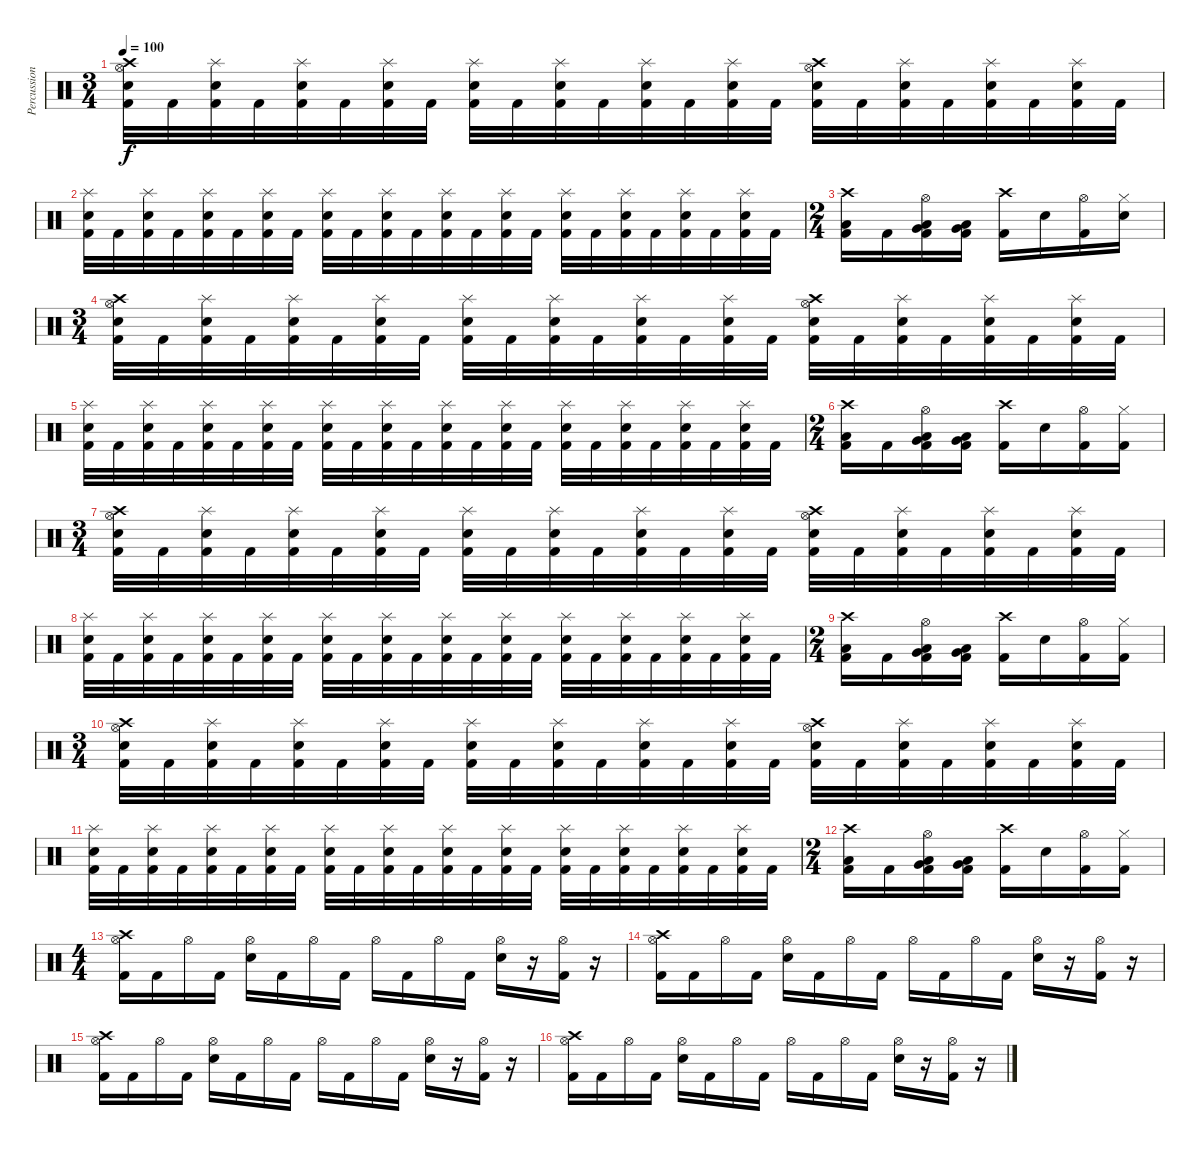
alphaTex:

\track ("Percussion" "Percussion") {instrument percussion}
\staff {score}
\articulation defaults
\ts (3 4)
\tempo 100
\clef neutral
\ks c
("Hi-Hat (open)" "Crash high (hit)" "Electric Snare (hit)" "Kick (hit) 2").32{dy f} "Kick (hit) 2".32 ("Splash (hit)" "Electric Snare (hit)" "Kick (hit) 2").32 "Kick (hit) 2".32 ("Splash (hit)" "Electric Snare (hit)" "Kick (hit) 2").32 "Kick (hit) 2".32 ("Splash (hit)" "Electric Snare (hit)" "Kick (hit) 2").32 "Kick (hit) 2".32 ("Splash (hit)" "Electric Snare (hit)" "Kick (hit) 2").32 "Kick (hit) 2".32 ("Splash (hit)" "Electric Snare (hit)" "Kick (hit) 2").32 "Kick (hit) 2".32 ("Splash (hit)" "Electric Snare (hit)" "Kick (hit) 2").32 "Kick (hit) 2".32 ("Splash (hit)" "Electric Snare (hit)" "Kick (hit) 2").32 "Kick (hit) 2".32 ("Hi-Hat (open)" "Crash high (hit)" "Electric Snare (hit)" "Kick (hit) 2").32 "Kick (hit) 2".32 ("Splash (hit)" "Electric Snare (hit)" "Kick (hit) 2").32 "Kick (hit) 2".32 ("Splash (hit)" "Electric Snare (hit)" "Kick (hit) 2").32 "Kick (hit) 2".32 ("Splash (hit)" "Electric Snare (hit)" "Kick (hit) 2").32 "Kick (hit) 2".32 |
("Splash (hit)" "Electric Snare (hit)" "Kick (hit) 2").32 "Kick (hit) 2".32 ("Splash (hit)" "Electric Snare (hit)" "Kick (hit) 2").32 "Kick (hit) 2".32 ("Splash (hit)" "Electric Snare (hit)" "Kick (hit) 2").32 "Kick (hit) 2".32 ("Splash (hit)" "Electric Snare (hit)" "Kick (hit) 2").32 "Kick (hit) 2".32 ("Splash (hit)" "Electric Snare (hit)" "Kick (hit) 2").32 "Kick (hit) 2".32 ("Splash (hit)" "Electric Snare (hit)" "Kick (hit) 2").32 "Kick (hit) 2".32 ("Splash (hit)" "Electric Snare (hit)" "Kick (hit) 2").32 "Kick (hit) 2".32 ("Splash (hit)" "Electric Snare (hit)" "Kick (hit) 2").32 "Kick (hit) 2".32 ("Splash (hit)" "Electric Snare (hit)" "Kick (hit) 2").32 "Kick (hit) 2".32 ("Splash (hit)" "Electric Snare (hit)" "Kick (hit) 2").32 "Kick (hit) 2".32 ("Splash (hit)" "Electric Snare (hit)" "Kick (hit) 2").32 "Kick (hit) 2".32 ("Splash (hit)" "Electric Snare (hit)" "Kick (hit) 2").32 "Kick (hit) 2".32 |
\ts (2 4)
("Crash high (hit)" "Low Floor Tom (hit)" "Kick (hit) 2").16 "Kick (hit) 2".16 ("Hi-Hat (open)" "Very Low Tom (hit)" "Low Floor Tom (hit)" "Kick (hit) 2").16 ("Very Low Tom (hit)" "Low Floor Tom (hit)" "Kick (hit) 2").16 ("Crash high (hit)" "Kick (hit) 2").16 "Electric Snare (hit)".16 ("Hi-Hat (open)" "Kick (hit) 2").16 ("Hi-Hat (closed)" "Electric Snare (hit)").16 |
\ts (3 4)
("Hi-Hat (open)" "Crash high (hit)" "Electric Snare (hit)" "Kick (hit) 2").32 "Kick (hit) 2".32 ("Splash (hit)" "Electric Snare (hit)" "Kick (hit) 2").32 "Kick (hit) 2".32 ("Splash (hit)" "Electric Snare (hit)" "Kick (hit) 2").32 "Kick (hit) 2".32 ("Splash (hit)" "Electric Snare (hit)" "Kick (hit) 2").32 "Kick (hit) 2".32 ("Splash (hit)" "Electric Snare (hit)" "Kick (hit) 2").32 "Kick (hit) 2".32 ("Splash (hit)" "Electric Snare (hit)" "Kick (hit) 2").32 "Kick (hit) 2".32 ("Splash (hit)" "Electric Snare (hit)" "Kick (hit) 2").32 "Kick (hit) 2".32 ("Splash (hit)" "Electric Snare (hit)" "Kick (hit) 2").32 "Kick (hit) 2".32 ("Hi-Hat (open)" "Crash high (hit)" "Electric Snare (hit)" "Kick (hit) 2").32 "Kick (hit) 2".32 ("Splash (hit)" "Electric Snare (hit)" "Kick (hit) 2").32 "Kick (hit) 2".32 ("Splash (hit)" "Electric Snare (hit)" "Kick (hit) 2").32 "Kick (hit) 2".32 ("Splash (hit)" "Electric Snare (hit)" "Kick (hit) 2").32 "Kick (hit) 2".32 |
("Splash (hit)" "Electric Snare (hit)" "Kick (hit) 2").32 "Kick (hit) 2".32 ("Splash (hit)" "Electric Snare (hit)" "Kick (hit) 2").32 "Kick (hit) 2".32 ("Splash (hit)" "Electric Snare (hit)" "Kick (hit) 2").32 "Kick (hit) 2".32 ("Splash (hit)" "Electric Snare (hit)" "Kick (hit) 2").32 "Kick (hit) 2".32 ("Splash (hit)" "Electric Snare (hit)" "Kick (hit) 2").32 "Kick (hit) 2".32 ("Splash (hit)" "Electric Snare (hit)" "Kick (hit) 2").32 "Kick (hit) 2".32 ("Splash (hit)" "Electric Snare (hit)" "Kick (hit) 2").32 "Kick (hit) 2".32 ("Splash (hit)" "Electric Snare (hit)" "Kick (hit) 2").32 "Kick (hit) 2".32 ("Splash (hit)" "Electric Snare (hit)" "Kick (hit) 2").32 "Kick (hit) 2".32 ("Splash (hit)" "Electric Snare (hit)" "Kick (hit) 2").32 "Kick (hit) 2".32 ("Splash (hit)" "Electric Snare (hit)" "Kick (hit) 2").32 "Kick (hit) 2".32 ("Splash (hit)" "Electric Snare (hit)" "Kick (hit) 2").32 "Kick (hit) 2".32 |
\ts (2 4)
("Crash high (hit)" "Low Floor Tom (hit)" "Kick (hit) 2").16 "Kick (hit) 2".16 ("Hi-Hat (open)" "Very Low Tom (hit)" "Low Floor Tom (hit)" "Kick (hit) 2").16 ("Very Low Tom (hit)" "Low Floor Tom (hit)" "Kick (hit) 2").16 ("Crash high (hit)" "Kick (hit) 2").16 "Electric Snare (hit)".16 ("Hi-Hat (open)" "Kick (hit) 2").16 ("Hi-Hat (closed)" "Kick (hit) 2").16 |
\ts (3 4)
("Hi-Hat (open)" "Crash high (hit)" "Electric Snare (hit)" "Kick (hit) 2").32 "Kick (hit) 2".32 ("Splash (hit)" "Electric Snare (hit)" "Kick (hit) 2").32 "Kick (hit) 2".32 ("Splash (hit)" "Electric Snare (hit)" "Kick (hit) 2").32 "Kick (hit) 2".32 ("Splash (hit)" "Electric Snare (hit)" "Kick (hit) 2").32 "Kick (hit) 2".32 ("Splash (hit)" "Electric Snare (hit)" "Kick (hit) 2").32 "Kick (hit) 2".32 ("Splash (hit)" "Electric Snare (hit)" "Kick (hit) 2").32 "Kick (hit) 2".32 ("Splash (hit)" "Electric Snare (hit)" "Kick (hit) 2").32 "Kick (hit) 2".32 ("Splash (hit)" "Electric Snare (hit)" "Kick (hit) 2").32 "Kick (hit) 2".32 ("Hi-Hat (open)" "Crash high (hit)" "Electric Snare (hit)" "Kick (hit) 2").32 "Kick (hit) 2".32 ("Splash (hit)" "Electric Snare (hit)" "Kick (hit) 2").32 "Kick (hit) 2".32 ("Splash (hit)" "Electric Snare (hit)" "Kick (hit) 2").32 "Kick (hit) 2".32 ("Splash (hit)" "Electric Snare (hit)" "Kick (hit) 2").32 "Kick (hit) 2".32 |
("Splash (hit)" "Electric Snare (hit)" "Kick (hit) 2").32 "Kick (hit) 2".32 ("Splash (hit)" "Electric Snare (hit)" "Kick (hit) 2").32 "Kick (hit) 2".32 ("Splash (hit)" "Electric Snare (hit)" "Kick (hit) 2").32 "Kick (hit) 2".32 ("Splash (hit)" "Electric Snare (hit)" "Kick (hit) 2").32 "Kick (hit) 2".32 ("Splash (hit)" "Electric Snare (hit)" "Kick (hit) 2").32 "Kick (hit) 2".32 ("Splash (hit)" "Electric Snare (hit)" "Kick (hit) 2").32 "Kick (hit) 2".32 ("Splash (hit)" "Electric Snare (hit)" "Kick (hit) 2").32 "Kick (hit) 2".32 ("Splash (hit)" "Electric Snare (hit)" "Kick (hit) 2").32 "Kick (hit) 2".32 ("Splash (hit)" "Electric Snare (hit)" "Kick (hit) 2").32 "Kick (hit) 2".32 ("Splash (hit)" "Electric Snare (hit)" "Kick (hit) 2").32 "Kick (hit) 2".32 ("Splash (hit)" "Electric Snare (hit)" "Kick (hit) 2").32 "Kick (hit) 2".32 ("Splash (hit)" "Electric Snare (hit)" "Kick (hit) 2").32 "Kick (hit) 2".32 |
\ts (2 4)
("Crash high (hit)" "Low Floor Tom (hit)" "Kick (hit) 2").16 "Kick (hit) 2".16 ("Hi-Hat (open)" "Very Low Tom (hit)" "Low Floor Tom (hit)" "Kick (hit) 2").16 ("Very Low Tom (hit)" "Low Floor Tom (hit)" "Kick (hit) 2").16 ("Crash high (hit)" "Kick (hit) 2").16 "Electric Snare (hit)".16 ("Hi-Hat (open)" "Kick (hit) 2").16 ("Hi-Hat (closed)" "Kick (hit) 2").16 |
\ts (3 4)
("Hi-Hat (open)" "Crash high (hit)" "Electric Snare (hit)" "Kick (hit) 2").32 "Kick (hit) 2".32 ("Splash (hit)" "Electric Snare (hit)" "Kick (hit) 2").32 "Kick (hit) 2".32 ("Splash (hit)" "Electric Snare (hit)" "Kick (hit) 2").32 "Kick (hit) 2".32 ("Splash (hit)" "Electric Snare (hit)" "Kick (hit) 2").32 "Kick (hit) 2".32 ("Splash (hit)" "Electric Snare (hit)" "Kick (hit) 2").32 "Kick (hit) 2".32 ("Splash (hit)" "Electric Snare (hit)" "Kick (hit) 2").32 "Kick (hit) 2".32 ("Splash (hit)" "Electric Snare (hit)" "Kick (hit) 2").32 "Kick (hit) 2".32 ("Splash (hit)" "Electric Snare (hit)" "Kick (hit) 2").32 "Kick (hit) 2".32 ("Hi-Hat (open)" "Crash high (hit)" "Electric Snare (hit)" "Kick (hit) 2").32 "Kick (hit) 2".32 ("Splash (hit)" "Electric Snare (hit)" "Kick (hit) 2").32 "Kick (hit) 2".32 ("Splash (hit)" "Electric Snare (hit)" "Kick (hit) 2").32 "Kick (hit) 2".32 ("Splash (hit)" "Electric Snare (hit)" "Kick (hit) 2").32 "Kick (hit) 2".32 |
("Splash (hit)" "Electric Snare (hit)" "Kick (hit) 2").32 "Kick (hit) 2".32 ("Splash (hit)" "Electric Snare (hit)" "Kick (hit) 2").32 "Kick (hit) 2".32 ("Splash (hit)" "Electric Snare (hit)" "Kick (hit) 2").32 "Kick (hit) 2".32 ("Splash (hit)" "Electric Snare (hit)" "Kick (hit) 2").32 "Kick (hit) 2".32 ("Splash (hit)" "Electric Snare (hit)" "Kick (hit) 2").32 "Kick (hit) 2".32 ("Splash (hit)" "Electric Snare (hit)" "Kick (hit) 2").32 "Kick (hit) 2".32 ("Splash (hit)" "Electric Snare (hit)" "Kick (hit) 2").32 "Kick (hit) 2".32 ("Splash (hit)" "Electric Snare (hit)" "Kick (hit) 2").32 "Kick (hit) 2".32 ("Splash (hit)" "Electric Snare (hit)" "Kick (hit) 2").32 "Kick (hit) 2".32 ("Splash (hit)" "Electric Snare (hit)" "Kick (hit) 2").32 "Kick (hit) 2".32 ("Splash (hit)" "Electric Snare (hit)" "Kick (hit) 2").32 "Kick (hit) 2".32 ("Splash (hit)" "Electric Snare (hit)" "Kick (hit) 2").32 "Kick (hit) 2".32 |
\ts (2 4)
("Crash high (hit)" "Low Floor Tom (hit)" "Kick (hit) 2").16 "Kick (hit) 2".16 ("Hi-Hat (open)" "Very Low Tom (hit)" "Low Floor Tom (hit)" "Kick (hit) 2").16 ("Very Low Tom (hit)" "Low Floor Tom (hit)" "Kick (hit) 2").16 ("Crash high (hit)" "Kick (hit) 2").16 "Electric Snare (hit)".16 ("Hi-Hat (open)" "Kick (hit) 2").16 ("Hi-Hat (closed)" "Kick (hit) 2").16 |
\ts (4 4)
("Hi-Hat (open)" "Crash high (hit)" "Kick (hit) 2").16 "Kick (hit) 2".16 "Hi-Hat (open)".16 "Kick (hit) 2".16 ("Hi-Hat (open)" "Electric Snare (hit)").16 "Kick (hit) 2".16 "Hi-Hat (open)".16 "Kick (hit) 2".16 "Hi-Hat (open)".16 "Kick (hit) 2".16 "Hi-Hat (open)".16 "Kick (hit) 2".16 ("Hi-Hat (open)" "Electric Snare (hit)").16 r.16 ("Hi-Hat (open)" "Kick (hit) 2").16 r.16 |
("Hi-Hat (open)" "Crash high (hit)" "Kick (hit) 2").16 "Kick (hit) 2".16 "Hi-Hat (open)".16 "Kick (hit) 2".16 ("Hi-Hat (open)" "Electric Snare (hit)").16 "Kick (hit) 2".16 "Hi-Hat (open)".16 "Kick (hit) 2".16 "Hi-Hat (open)".16 "Kick (hit) 2".16 "Hi-Hat (open)".16 "Kick (hit) 2".16 ("Hi-Hat (open)" "Electric Snare (hit)").16 r.16 ("Hi-Hat (open)" "Kick (hit) 2").16 r.16 |
("Hi-Hat (open)" "Crash high (hit)" "Kick (hit) 2").16 "Kick (hit) 2".16 "Hi-Hat (open)".16 "Kick (hit) 2".16 ("Hi-Hat (open)" "Electric Snare (hit)").16 "Kick (hit) 2".16 "Hi-Hat (open)".16 "Kick (hit) 2".16 "Hi-Hat (open)".16 "Kick (hit) 2".16 "Hi-Hat (open)".16 "Kick (hit) 2".16 ("Hi-Hat (open)" "Electric Snare (hit)").16 r.16 ("Hi-Hat (open)" "Kick (hit) 2").16 r.16 |
("Hi-Hat (open)" "Crash high (hit)" "Kick (hit) 2").16 "Kick (hit) 2".16 "Hi-Hat (open)".16 "Kick (hit) 2".16 ("Hi-Hat (open)" "Electric Snare (hit)").16 "Kick (hit) 2".16 "Hi-Hat (open)".16 "Kick (hit) 2".16 "Hi-Hat (open)".16 "Kick (hit) 2".16 "Hi-Hat (open)".16 "Kick (hit) 2".16 ("Hi-Hat (open)" "Electric Snare (hit)").16 r.16 ("Hi-Hat (open)" "Kick (hit) 2").16 r.16
